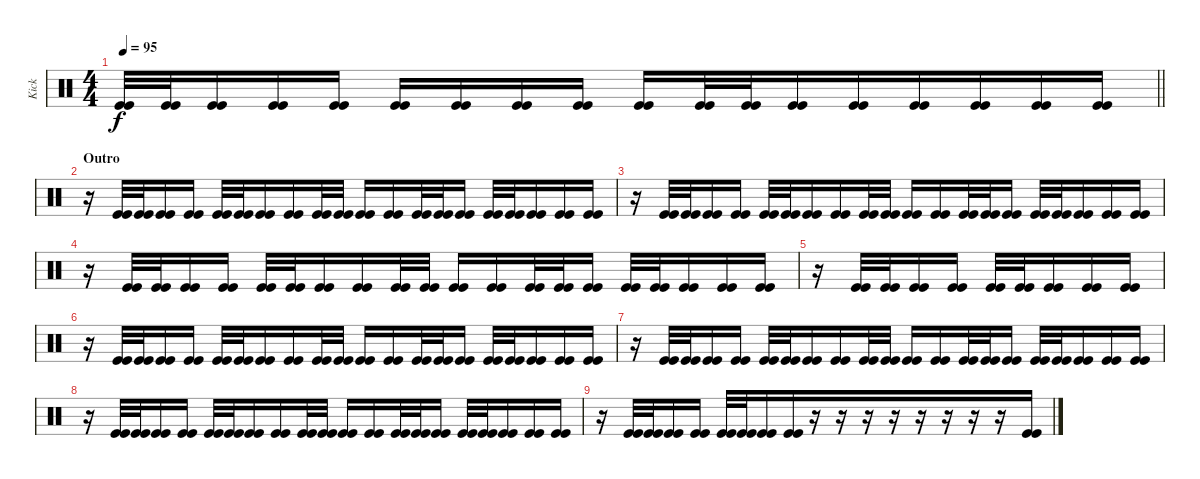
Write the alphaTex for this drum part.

\track ("Kick" "Kick") {instrument percussion}
\staff {score}
\articulation defaults
\ts (4 4)
\tempo 95
\clef neutral
\barLineRight lightlight
\ks c
("Kick (hit)" "Kick (hit)").32{dy f beam merge} ("Kick (hit)" "Kick (hit)").32{beam merge} ("Kick (hit)" "Kick (hit)").16 ("Kick (hit)" "Kick (hit)").16 ("Kick (hit)" "Kick (hit)").16 ("Kick (hit)" "Kick (hit)").16 ("Kick (hit)" "Kick (hit)").16 ("Kick (hit)" "Kick (hit)").16 ("Kick (hit)" "Kick (hit)").16 ("Kick (hit)" "Kick (hit)").16 ("Kick (hit)" "Kick (hit)").32{beam merge} ("Kick (hit)" "Kick (hit)").32 ("Kick (hit)" "Kick (hit)").16{beam merge} ("Kick (hit)" "Kick (hit)").16{beam merge} ("Kick (hit)" "Kick (hit)").16{beam merge} ("Kick (hit)" "Kick (hit)").16 ("Kick (hit)" "Kick (hit)").16 ("Kick (hit)" "Kick (hit)").16 |
\section ("" "Outro")
r.16 ("Kick (hit)" "Kick (hit)").32 ("Kick (hit)" "Kick (hit)").32 ("Kick (hit)" "Kick (hit)").16 ("Kick (hit)" "Kick (hit)").16 ("Kick (hit)" "Kick (hit)").32{beam merge} ("Kick (hit)" "Kick (hit)").32 ("Kick (hit)" "Kick (hit)").16 ("Kick (hit)" "Kick (hit)").16 ("Kick (hit)" "Kick (hit)").32 ("Kick (hit)" "Kick (hit)").32 ("Kick (hit)" "Kick (hit)").16{beam merge} ("Kick (hit)" "Kick (hit)").16{beam merge} ("Kick (hit)" "Kick (hit)").32 ("Kick (hit)" "Kick (hit)").32 ("Kick (hit)" "Kick (hit)").16 ("Kick (hit)" "Kick (hit)").32 ("Kick (hit)" "Kick (hit)").32 ("Kick (hit)" "Kick (hit)").16{beam merge} ("Kick (hit)" "Kick (hit)").16 ("Kick (hit)" "Kick (hit)").16 |
r.16 ("Kick (hit)" "Kick (hit)").32 ("Kick (hit)" "Kick (hit)").32{beam merge} ("Kick (hit)" "Kick (hit)").16 ("Kick (hit)" "Kick (hit)").16 ("Kick (hit)" "Kick (hit)").32 ("Kick (hit)" "Kick (hit)").32 ("Kick (hit)" "Kick (hit)").16 ("Kick (hit)" "Kick (hit)").16{beam merge} ("Kick (hit)" "Kick (hit)").32 ("Kick (hit)" "Kick (hit)").32 ("Kick (hit)" "Kick (hit)").16{beam merge} ("Kick (hit)" "Kick (hit)").16{beam merge} ("Kick (hit)" "Kick (hit)").32 ("Kick (hit)" "Kick (hit)").32 ("Kick (hit)" "Kick (hit)").16 ("Kick (hit)" "Kick (hit)").32 ("Kick (hit)" "Kick (hit)").32{beam merge} ("Kick (hit)" "Kick (hit)").16{beam merge} ("Kick (hit)" "Kick (hit)").16 ("Kick (hit)" "Kick (hit)").16 |
r.16 ("Kick (hit)" "Kick (hit)").32 ("Kick (hit)" "Kick (hit)").32{beam merge} ("Kick (hit)" "Kick (hit)").16 ("Kick (hit)" "Kick (hit)").16 ("Kick (hit)" "Kick (hit)").32 ("Kick (hit)" "Kick (hit)").32 ("Kick (hit)" "Kick (hit)").16 ("Kick (hit)" "Kick (hit)").16{beam merge} ("Kick (hit)" "Kick (hit)").32 ("Kick (hit)" "Kick (hit)").32 ("Kick (hit)" "Kick (hit)").16{beam merge} ("Kick (hit)" "Kick (hit)").16{beam merge} ("Kick (hit)" "Kick (hit)").32 ("Kick (hit)" "Kick (hit)").32 ("Kick (hit)" "Kick (hit)").16 ("Kick (hit)" "Kick (hit)").32 ("Kick (hit)" "Kick (hit)").32{beam merge} ("Kick (hit)" "Kick (hit)").16{beam merge} ("Kick (hit)" "Kick (hit)").16 ("Kick (hit)" "Kick (hit)").16 |
r.16 ("Kick (hit)" "Kick (hit)").32 ("Kick (hit)" "Kick (hit)").32{beam merge} ("Kick (hit)" "Kick (hit)").16 ("Kick (hit)" "Kick (hit)").16 ("Kick (hit)" "Kick (hit)").32 ("Kick (hit)" "Kick (hit)").32 ("Kick (hit)" "Kick (hit)").16 ("Kick (hit)" "Kick (hit)").16{beam merge} ("Kick (hit)" "Kick (hit)").16 |
r.16 ("Kick (hit)" "Kick (hit)").32 ("Kick (hit)" "Kick (hit)").32 ("Kick (hit)" "Kick (hit)").16 ("Kick (hit)" "Kick (hit)").16 ("Kick (hit)" "Kick (hit)").32{beam merge} ("Kick (hit)" "Kick (hit)").32 ("Kick (hit)" "Kick (hit)").16 ("Kick (hit)" "Kick (hit)").16 ("Kick (hit)" "Kick (hit)").32 ("Kick (hit)" "Kick (hit)").32 ("Kick (hit)" "Kick (hit)").16{beam merge} ("Kick (hit)" "Kick (hit)").16{beam merge} ("Kick (hit)" "Kick (hit)").32 ("Kick (hit)" "Kick (hit)").32 ("Kick (hit)" "Kick (hit)").16 ("Kick (hit)" "Kick (hit)").32 ("Kick (hit)" "Kick (hit)").32 ("Kick (hit)" "Kick (hit)").16{beam merge} ("Kick (hit)" "Kick (hit)").16 ("Kick (hit)" "Kick (hit)").16 |
r.16 ("Kick (hit)" "Kick (hit)").32 ("Kick (hit)" "Kick (hit)").32{beam merge} ("Kick (hit)" "Kick (hit)").16 ("Kick (hit)" "Kick (hit)").16 ("Kick (hit)" "Kick (hit)").32 ("Kick (hit)" "Kick (hit)").32 ("Kick (hit)" "Kick (hit)").16 ("Kick (hit)" "Kick (hit)").16{beam merge} ("Kick (hit)" "Kick (hit)").32 ("Kick (hit)" "Kick (hit)").32 ("Kick (hit)" "Kick (hit)").16{beam merge} ("Kick (hit)" "Kick (hit)").16{beam merge} ("Kick (hit)" "Kick (hit)").32 ("Kick (hit)" "Kick (hit)").32 ("Kick (hit)" "Kick (hit)").16 ("Kick (hit)" "Kick (hit)").32 ("Kick (hit)" "Kick (hit)").32{beam merge} ("Kick (hit)" "Kick (hit)").16{beam merge} ("Kick (hit)" "Kick (hit)").16 ("Kick (hit)" "Kick (hit)").16 |
r.16 ("Kick (hit)" "Kick (hit)").32 ("Kick (hit)" "Kick (hit)").32{beam merge} ("Kick (hit)" "Kick (hit)").16 ("Kick (hit)" "Kick (hit)").16 ("Kick (hit)" "Kick (hit)").32 ("Kick (hit)" "Kick (hit)").32 ("Kick (hit)" "Kick (hit)").16 ("Kick (hit)" "Kick (hit)").16{beam merge} ("Kick (hit)" "Kick (hit)").32 ("Kick (hit)" "Kick (hit)").32 ("Kick (hit)" "Kick (hit)").16{beam merge} ("Kick (hit)" "Kick (hit)").16{beam merge} ("Kick (hit)" "Kick (hit)").32 ("Kick (hit)" "Kick (hit)").32 ("Kick (hit)" "Kick (hit)").16 ("Kick (hit)" "Kick (hit)").32 ("Kick (hit)" "Kick (hit)").32{beam merge} ("Kick (hit)" "Kick (hit)").16{beam merge} ("Kick (hit)" "Kick (hit)").16 ("Kick (hit)" "Kick (hit)").16 |
r.16 ("Kick (hit)" "Kick (hit)").32 ("Kick (hit)" "Kick (hit)").32{beam merge} ("Kick (hit)" "Kick (hit)").16 ("Kick (hit)" "Kick (hit)").16 ("Kick (hit)" "Kick (hit)").32 ("Kick (hit)" "Kick (hit)").32 ("Kick (hit)" "Kick (hit)").16 ("Kick (hit)" "Kick (hit)").16{beam merge} r.16 r.16 r.16{beam merge} r.16{beam merge} r.16 r.16{beam merge} r.16 r.16{beam merge} ("Kick (hit)" "Kick (hit)").16
